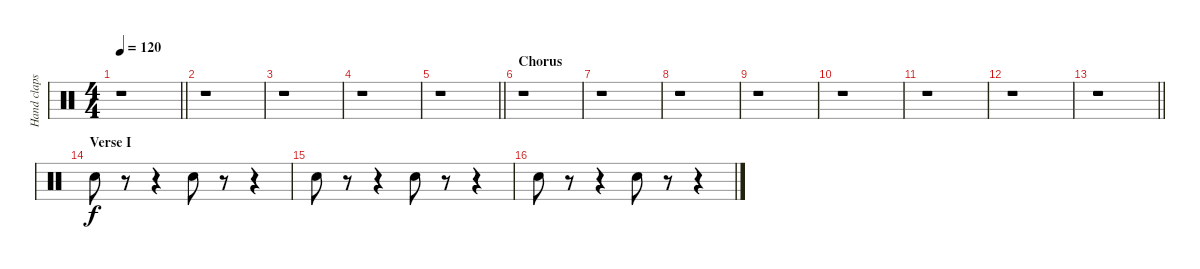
\track ("Hand claps" "Hand claps") {instrument percussion}
\staff {score}
\articulation defaults
\ts (4 4)
\tempo 120
\clef neutral
\barLineRight lightlight
\ks c
r.1{dy f} |
r.1 |
r.1 |
r.1 |
\barLineRight lightlight
r.1 |
\section ("" "Chorus")
r.1 |
r.1 |
r.1 |
r.1 |
r.1 |
r.1 |
r.1 |
\barLineRight lightlight
r.1 |
\section ("" "Verse I")
"Hand Clap (hit)".8 r.8 r.4 "Hand Clap (hit)".8 r.8 r.4 |
"Hand Clap (hit)".8 r.8 r.4 "Hand Clap (hit)".8 r.8 r.4 |
"Hand Clap (hit)".8 r.8 r.4 "Hand Clap (hit)".8 r.8 r.4
